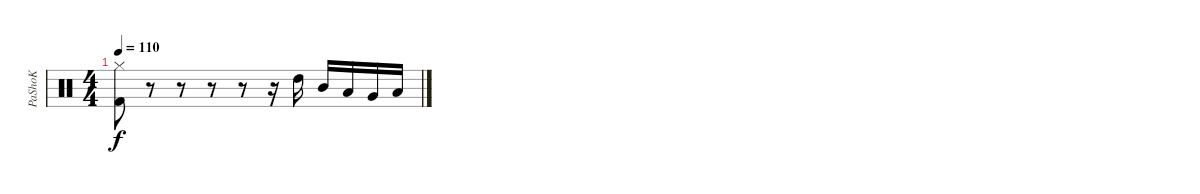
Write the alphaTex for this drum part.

\track ("PaShoK " "PaShoK ") {instrument percussion}
\staff {score}
\articulation defaults
\ts (4 4)
\tempo 110
\clef neutral
\ks c
("Hi-Hat (closed)" "Kick (hit) 2").8{dy f} r.8 r.8 r.8 r.8 r.16 "High Tom (hit)".16 "Mid Tom (hit)".16 "Low Tom (hit)".16 "Very Low Tom (hit)".16 "Low Floor Tom (hit)".16
